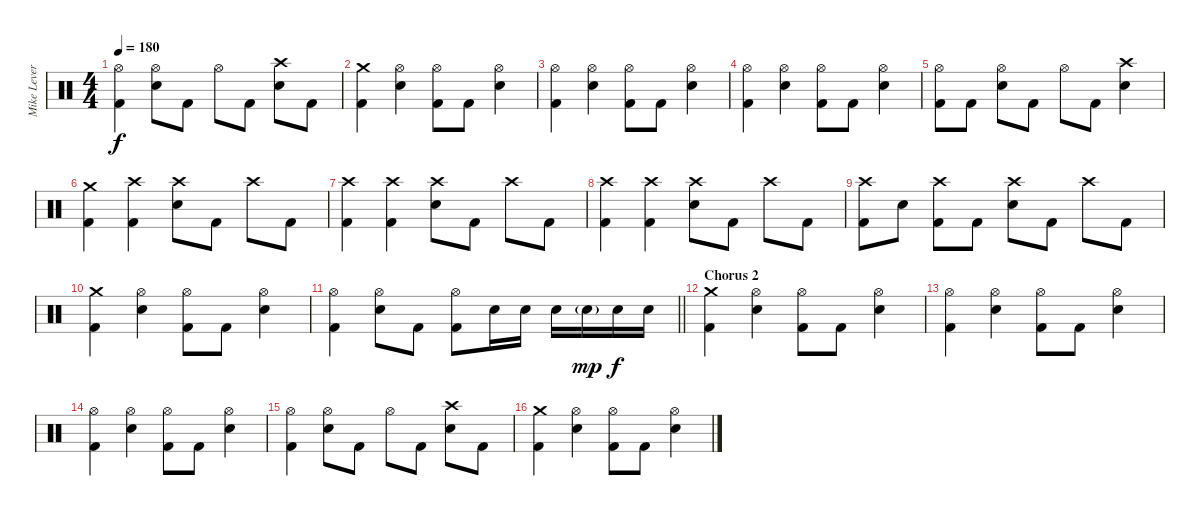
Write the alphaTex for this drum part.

\track ("Mike Leverence - Drums" "Mike Lever") {instrument percussion}
\staff {score}
\articulation defaults
\ts (4 4)
\tempo 180
\clef neutral
\ks c
("Hi-Hat (open)" "Kick (hit) 2").4{dy f} ("Hi-Hat (open)" "Electric Snare (hit)").8 "Kick (hit) 2".8 "Hi-Hat (open)".8 "Kick (hit) 2".8 ("Crash high (hit)" "Electric Snare (hit)").8 "Kick (hit) 2".8 |
("Crash medium (hit)" "Kick (hit) 2").4 ("Hi-Hat (open)" "Electric Snare (hit)").4 ("Hi-Hat (open)" "Kick (hit) 2").8 "Kick (hit) 2".8 ("Hi-Hat (open)" "Electric Snare (hit)").4 |
("Hi-Hat (open)" "Kick (hit) 2").4 ("Hi-Hat (open)" "Electric Snare (hit)").4 ("Hi-Hat (open)" "Kick (hit) 2").8 "Kick (hit) 2".8 ("Hi-Hat (open)" "Electric Snare (hit)").4 |
("Hi-Hat (open)" "Kick (hit) 2").4 ("Hi-Hat (open)" "Electric Snare (hit)").4 ("Hi-Hat (open)" "Kick (hit) 2").8 "Kick (hit) 2".8 ("Hi-Hat (open)" "Electric Snare (hit)").4 |
("Hi-Hat (open)" "Kick (hit) 2").8 "Kick (hit) 2".8 ("Hi-Hat (open)" "Electric Snare (hit)").8 "Kick (hit) 2".8 "Hi-Hat (open)".8 "Kick (hit) 2".8 ("Crash high (hit)" "Electric Snare (hit)").4 |
("Crash medium (hit)" "Kick (hit) 2").4 ("Crash high (hit)" "Kick (hit) 2").4 ("Crash high (hit)" "Electric Snare (hit)").8 "Kick (hit) 2".8 "Crash high (hit)".8 "Kick (hit) 2".8 |
("Crash high (hit)" "Kick (hit) 2").4 ("Crash high (hit)" "Kick (hit) 2").4 ("Crash high (hit)" "Electric Snare (hit)").8 "Kick (hit) 2".8 "Crash high (hit)".8 "Kick (hit) 2".8 |
("Crash high (hit)" "Kick (hit) 2").4 ("Crash high (hit)" "Kick (hit) 2").4 ("Crash high (hit)" "Electric Snare (hit)").8 "Kick (hit) 2".8 "Crash high (hit)".8 "Kick (hit) 2".8 |
("Crash high (hit)" "Kick (hit) 2").8 "Electric Snare (hit)".8 ("Crash high (hit)" "Kick (hit) 2").8 "Kick (hit) 2".8 ("Crash high (hit)" "Electric Snare (hit)").8 "Kick (hit) 2".8 "Crash high (hit)".8 "Kick (hit) 2".8 |
("Crash medium (hit)" "Kick (hit) 2").4 ("Hi-Hat (open)" "Electric Snare (hit)").4 ("Hi-Hat (open)" "Kick (hit) 2").8 "Kick (hit) 2".8 ("Hi-Hat (open)" "Electric Snare (hit)").4 |
\barLineRight lightlight
("Hi-Hat (open)" "Kick (hit) 2").4 ("Hi-Hat (open)" "Electric Snare (hit)").8 "Kick (hit) 2".8 ("Hi-Hat (open)" "Kick (hit) 2").8 "Electric Snare (hit)".16 "Electric Snare (hit)".16 "Electric Snare (hit)".16 "Electric Snare (hit)"{g}.16{dy mp} "Electric Snare (hit)".16{dy f} "Electric Snare (hit)".16 |
\section ("" "Chorus 2")
("Crash medium (hit)" "Kick (hit) 2").4 ("Hi-Hat (open)" "Electric Snare (hit)").4 ("Hi-Hat (open)" "Kick (hit) 2").8 "Kick (hit) 2".8 ("Hi-Hat (open)" "Electric Snare (hit)").4 |
("Hi-Hat (open)" "Kick (hit) 2").4 ("Hi-Hat (open)" "Electric Snare (hit)").4 ("Hi-Hat (open)" "Kick (hit) 2").8 "Kick (hit) 2".8 ("Hi-Hat (open)" "Electric Snare (hit)").4 |
("Hi-Hat (open)" "Kick (hit) 2").4 ("Hi-Hat (open)" "Electric Snare (hit)").4 ("Hi-Hat (open)" "Kick (hit) 2").8 "Kick (hit) 2".8 ("Hi-Hat (open)" "Electric Snare (hit)").4 |
("Hi-Hat (open)" "Kick (hit) 2").4 ("Hi-Hat (open)" "Electric Snare (hit)").8 "Kick (hit) 2".8 "Hi-Hat (open)".8 "Kick (hit) 2".8 ("Crash high (hit)" "Electric Snare (hit)").8 "Kick (hit) 2".8 |
("Crash medium (hit)" "Kick (hit) 2").4 ("Hi-Hat (open)" "Electric Snare (hit)").4 ("Hi-Hat (open)" "Kick (hit) 2").8 "Kick (hit) 2".8 ("Hi-Hat (open)" "Electric Snare (hit)").4
